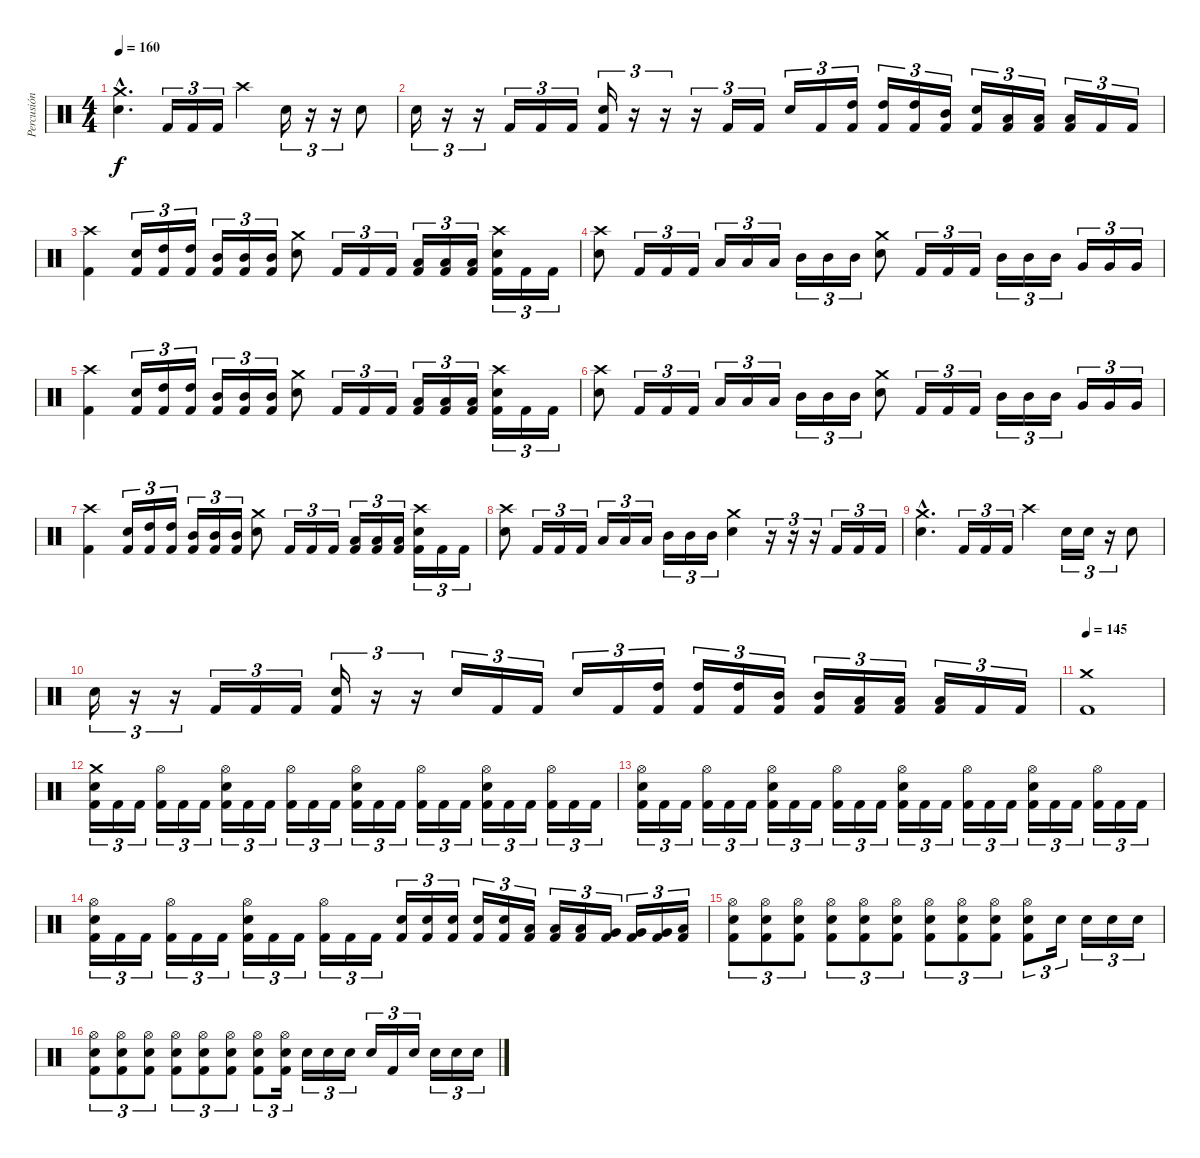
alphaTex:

\track ("Percusión" "Percusión") {instrument percussion}
\staff {score}
\articulation defaults
\ts (4 4)
\tempo 160
\clef neutral
\ks c
("Crash medium (hit)"{hac} "Electric Snare (hit)"{hac}).4{d dy f} "Kick (hit) 2".16{tu (3 2)} "Kick (hit) 2".16{tu (3 2)} "Kick (hit) 2".16{tu (3 2)} "Crash high (hit)".4 "Electric Snare (hit)".16{tu (3 2)} r.16{tu (3 2)} r.16{tu (3 2)} "Electric Snare (hit)".8 |
"Electric Snare (hit)".16{tu (3 2)} r.16{tu (3 2)} r.16{tu (3 2)} "Kick (hit) 2".16{tu (3 2)} "Kick (hit) 2".16{tu (3 2)} "Kick (hit) 2".16{tu (3 2)} ("Electric Snare (hit)" "Kick (hit) 2").16{tu (3 2)} r.16{tu (3 2)} r.16{tu (3 2)} r.16{tu (3 2)} "Kick (hit) 2".16{tu (3 2)} "Kick (hit) 2".16{tu (3 2)} "Electric Snare (hit)".16{tu (3 2)} "Kick (hit) 2".16{tu (3 2)} ("High Tom (hit)" "Kick (hit) 2").16{tu (3 2)} ("High Tom (hit)" "Kick (hit) 2").16{tu (3 2)} ("High Tom (hit)" "Kick (hit) 2").16{tu (3 2)} ("Mid Tom (hit)" "Kick (hit) 2").16{tu (3 2)} ("Electric Snare (hit)" "Kick (hit) 2").16{tu (3 2)} ("Low Tom (hit)" "Kick (hit) 2").16{tu (3 2)} ("Low Tom (hit)" "Kick (hit) 2").16{tu (3 2)} ("Low Tom (hit)" "Kick (hit) 2").16{tu (3 2)} "Kick (hit) 2".16{tu (3 2)} "Kick (hit) 2".16{tu (3 2)} |
("Crash high (hit)" "Kick (hit) 2").4 ("Electric Snare (hit)" "Kick (hit) 2").16{tu (3 2)} ("High Tom (hit)" "Kick (hit) 2").16{tu (3 2)} ("High Tom (hit)" "Kick (hit) 2").16{tu (3 2)} ("Mid Tom (hit)" "Kick (hit) 2").16{tu (3 2)} ("Mid Tom (hit)" "Kick (hit) 2").16{tu (3 2)} ("Mid Tom (hit)" "Kick (hit) 2").16{tu (3 2)} ("Crash medium (hit)" "Electric Snare (hit)").8 "Kick (hit) 2".16{tu (3 2)} "Kick (hit) 2".16{tu (3 2)} "Kick (hit) 2".16{tu (3 2)} ("Low Tom (hit)" "Kick (hit) 2").16{tu (3 2)} ("Low Tom (hit)" "Kick (hit) 2").16{tu (3 2)} ("Low Tom (hit)" "Kick (hit) 2").16{tu (3 2)} ("Crash high (hit)" "Electric Snare (hit)" "Kick (hit) 2").16{tu (3 2)} "Kick (hit) 2".16{tu (3 2)} "Kick (hit) 2".16{tu (3 2)} |
("Crash high (hit)" "Electric Snare (hit)").8 "Kick (hit) 2".16{tu (3 2)} "Kick (hit) 2".16{tu (3 2)} "Kick (hit) 2".16{tu (3 2)} "Low Tom (hit)".16{tu (3 2)} "Low Tom (hit)".16{tu (3 2)} "Low Tom (hit)".16{tu (3 2)} "Mid Tom (hit)".16{tu (3 2)} "Mid Tom (hit)".16{tu (3 2)} "Mid Tom (hit)".16{tu (3 2)} ("Crash medium (hit)" "Electric Snare (hit)").8 "Kick (hit) 2".16{tu (3 2)} "Kick (hit) 2".16{tu (3 2)} "Kick (hit) 2".16{tu (3 2)} "Mid Tom (hit)".16{tu (3 2)} "Mid Tom (hit)".16{tu (3 2)} "Mid Tom (hit)".16{tu (3 2)} "Very Low Tom (hit)".16{tu (3 2)} "Very Low Tom (hit)".16{tu (3 2)} "Very Low Tom (hit)".16{tu (3 2)} |
("Crash high (hit)" "Kick (hit) 2").4 ("Electric Snare (hit)" "Kick (hit) 2").16{tu (3 2)} ("High Tom (hit)" "Kick (hit) 2").16{tu (3 2)} ("High Tom (hit)" "Kick (hit) 2").16{tu (3 2)} ("Mid Tom (hit)" "Kick (hit) 2").16{tu (3 2)} ("Mid Tom (hit)" "Kick (hit) 2").16{tu (3 2)} ("Mid Tom (hit)" "Kick (hit) 2").16{tu (3 2)} ("Crash medium (hit)" "Electric Snare (hit)").8 "Kick (hit) 2".16{tu (3 2)} "Kick (hit) 2".16{tu (3 2)} "Kick (hit) 2".16{tu (3 2)} ("Low Tom (hit)" "Kick (hit) 2").16{tu (3 2)} ("Low Tom (hit)" "Kick (hit) 2").16{tu (3 2)} ("Low Tom (hit)" "Kick (hit) 2").16{tu (3 2)} ("Crash high (hit)" "Electric Snare (hit)" "Kick (hit) 2").16{tu (3 2)} "Kick (hit) 2".16{tu (3 2)} "Kick (hit) 2".16{tu (3 2)} |
("Crash high (hit)" "Electric Snare (hit)").8 "Kick (hit) 2".16{tu (3 2)} "Kick (hit) 2".16{tu (3 2)} "Kick (hit) 2".16{tu (3 2)} "Low Tom (hit)".16{tu (3 2)} "Low Tom (hit)".16{tu (3 2)} "Low Tom (hit)".16{tu (3 2)} "Mid Tom (hit)".16{tu (3 2)} "Mid Tom (hit)".16{tu (3 2)} "Mid Tom (hit)".16{tu (3 2)} ("Crash medium (hit)" "Electric Snare (hit)").8 "Kick (hit) 2".16{tu (3 2)} "Kick (hit) 2".16{tu (3 2)} "Kick (hit) 2".16{tu (3 2)} "Mid Tom (hit)".16{tu (3 2)} "Mid Tom (hit)".16{tu (3 2)} "Mid Tom (hit)".16{tu (3 2)} "Very Low Tom (hit)".16{tu (3 2)} "Very Low Tom (hit)".16{tu (3 2)} "Very Low Tom (hit)".16{tu (3 2)} |
("Crash high (hit)" "Kick (hit) 2").4 ("Electric Snare (hit)" "Kick (hit) 2").16{tu (3 2)} ("High Tom (hit)" "Kick (hit) 2").16{tu (3 2)} ("High Tom (hit)" "Kick (hit) 2").16{tu (3 2)} ("Mid Tom (hit)" "Kick (hit) 2").16{tu (3 2)} ("Mid Tom (hit)" "Kick (hit) 2").16{tu (3 2)} ("Mid Tom (hit)" "Kick (hit) 2").16{tu (3 2)} ("Crash medium (hit)" "Electric Snare (hit)").8 "Kick (hit) 2".16{tu (3 2)} "Kick (hit) 2".16{tu (3 2)} "Kick (hit) 2".16{tu (3 2)} ("Low Tom (hit)" "Kick (hit) 2").16{tu (3 2)} ("Low Tom (hit)" "Kick (hit) 2").16{tu (3 2)} ("Low Tom (hit)" "Kick (hit) 2").16{tu (3 2)} ("Crash high (hit)" "Electric Snare (hit)" "Kick (hit) 2").16{tu (3 2)} "Kick (hit) 2".16{tu (3 2)} "Kick (hit) 2".16{tu (3 2)} |
("Crash high (hit)" "Electric Snare (hit)").8 "Kick (hit) 2".16{tu (3 2)} "Kick (hit) 2".16{tu (3 2)} "Kick (hit) 2".16{tu (3 2)} "Low Tom (hit)".16{tu (3 2)} "Low Tom (hit)".16{tu (3 2)} "Low Tom (hit)".16{tu (3 2)} "Mid Tom (hit)".16{tu (3 2)} "Mid Tom (hit)".16{tu (3 2)} "Mid Tom (hit)".16{tu (3 2)} ("Crash medium (hit)" "Electric Snare (hit)").4 r.16{tu (3 2)} r.16{tu (3 2)} r.16{tu (3 2)} "Kick (hit) 2".16{tu (3 2)} "Kick (hit) 2".16{tu (3 2)} "Kick (hit) 2".16{tu (3 2)} |
("Crash medium (hit)"{hac} "Electric Snare (hit)"{hac}).4{d} "Kick (hit) 2".16{tu (3 2)} "Kick (hit) 2".16{tu (3 2)} "Kick (hit) 2".16{tu (3 2)} "Crash high (hit)".4 "Electric Snare (hit)".16{tu (3 2)} "Electric Snare (hit)".16{tu (3 2)} r.16{tu (3 2)} "Electric Snare (hit)".8 |
"Electric Snare (hit)".16{tu (3 2)} r.16{tu (3 2)} r.16{tu (3 2)} "Kick (hit) 2".16{tu (3 2)} "Kick (hit) 2".16{tu (3 2)} "Kick (hit) 2".16{tu (3 2)} ("Electric Snare (hit)" "Kick (hit) 2").16{tu (3 2)} r.16{tu (3 2)} r.16{tu (3 2)} "Electric Snare (hit)".16{tu (3 2)} "Kick (hit) 2".16{tu (3 2)} "Kick (hit) 2".16{tu (3 2)} "Electric Snare (hit)".16{tu (3 2)} "Kick (hit) 2".16{tu (3 2)} ("High Tom (hit)" "Kick (hit) 2").16{tu (3 2)} ("High Tom (hit)" "Kick (hit) 2").16{tu (3 2)} ("High Tom (hit)" "Kick (hit) 2").16{tu (3 2)} ("Mid Tom (hit)" "Kick (hit) 2").16{tu (3 2)} ("Mid Tom (hit)" "Kick (hit) 2").16{tu (3 2)} ("Low Tom (hit)" "Kick (hit) 2").16{tu (3 2)} ("Low Tom (hit)" "Kick (hit) 2").16{tu (3 2)} ("Low Tom (hit)" "Kick (hit) 2").16{tu (3 2)} "Kick (hit) 2".16{tu (3 2)} "Kick (hit) 2".16{tu (3 2)} |
\tempo 145
("Crash medium (hit)" "Kick (hit) 2").1 |
("Crash medium (hit)" "Electric Snare (hit)" "Kick (hit) 2").16{tu (3 2)} "Kick (hit) 2".16{tu (3 2)} "Kick (hit) 2".16{tu (3 2)} ("Hi-Hat (open)" "Kick (hit) 2").16{tu (3 2)} "Kick (hit) 2".16{tu (3 2)} "Kick (hit) 2".16{tu (3 2)} ("Hi-Hat (open)" "Electric Snare (hit)" "Kick (hit) 2").16{tu (3 2)} "Kick (hit) 2".16{tu (3 2)} "Kick (hit) 2".16{tu (3 2)} ("Hi-Hat (open)" "Kick (hit) 2").16{tu (3 2)} "Kick (hit) 2".16{tu (3 2)} "Kick (hit) 2".16{tu (3 2)} ("Hi-Hat (open)" "Electric Snare (hit)" "Kick (hit) 2").16{tu (3 2)} "Kick (hit) 2".16{tu (3 2)} "Kick (hit) 2".16{tu (3 2)} ("Hi-Hat (open)" "Kick (hit) 2").16{tu (3 2)} "Kick (hit) 2".16{tu (3 2)} "Kick (hit) 2".16{tu (3 2)} ("Hi-Hat (open)" "Electric Snare (hit)" "Kick (hit) 2").16{tu (3 2)} "Kick (hit) 2".16{tu (3 2)} "Kick (hit) 2".16{tu (3 2)} ("Hi-Hat (open)" "Kick (hit) 2").16{tu (3 2)} "Kick (hit) 2".16{tu (3 2)} "Kick (hit) 2".16{tu (3 2)} |
("Hi-Hat (open)" "Electric Snare (hit)" "Kick (hit) 2").16{tu (3 2)} "Kick (hit) 2".16{tu (3 2)} "Kick (hit) 2".16{tu (3 2)} ("Hi-Hat (open)" "Kick (hit) 2").16{tu (3 2)} "Kick (hit) 2".16{tu (3 2)} "Kick (hit) 2".16{tu (3 2)} ("Hi-Hat (open)" "Electric Snare (hit)" "Kick (hit) 2").16{tu (3 2)} "Kick (hit) 2".16{tu (3 2)} "Kick (hit) 2".16{tu (3 2)} ("Hi-Hat (open)" "Kick (hit) 2").16{tu (3 2)} "Kick (hit) 2".16{tu (3 2)} "Kick (hit) 2".16{tu (3 2)} ("Hi-Hat (open)" "Electric Snare (hit)" "Kick (hit) 2").16{tu (3 2)} "Kick (hit) 2".16{tu (3 2)} "Kick (hit) 2".16{tu (3 2)} ("Hi-Hat (open)" "Kick (hit) 2").16{tu (3 2)} "Kick (hit) 2".16{tu (3 2)} "Kick (hit) 2".16{tu (3 2)} ("Hi-Hat (open)" "Electric Snare (hit)" "Kick (hit) 2").16{tu (3 2)} "Kick (hit) 2".16{tu (3 2)} "Kick (hit) 2".16{tu (3 2)} ("Hi-Hat (open)" "Kick (hit) 2").16{tu (3 2)} "Kick (hit) 2".16{tu (3 2)} "Kick (hit) 2".16{tu (3 2)} |
("Hi-Hat (open)" "Electric Snare (hit)" "Kick (hit) 2").16{tu (3 2)} "Kick (hit) 2".16{tu (3 2)} "Kick (hit) 2".16{tu (3 2)} ("Hi-Hat (open)" "Kick (hit) 2").16{tu (3 2)} "Kick (hit) 2".16{tu (3 2)} "Kick (hit) 2".16{tu (3 2)} ("Hi-Hat (open)" "Electric Snare (hit)" "Kick (hit) 2").16{tu (3 2)} "Kick (hit) 2".16{tu (3 2)} "Kick (hit) 2".16{tu (3 2)} ("Hi-Hat (open)" "Kick (hit) 2").16{tu (3 2)} "Kick (hit) 2".16{tu (3 2)} "Kick (hit) 2".16{tu (3 2)} ("Electric Snare (hit)" "Kick (hit) 2").16{tu (3 2)} ("Electric Snare (hit)" "Kick (hit) 2").16{tu (3 2)} ("Electric Snare (hit)" "Kick (hit) 2").16{tu (3 2)} ("Electric Snare (hit)" "Kick (hit) 2").16{tu (3 2)} ("Electric Snare (hit)" "Kick (hit) 2").16{tu (3 2)} ("Low Tom (hit)" "Kick (hit) 2").16{tu (3 2)} ("Low Tom (hit)" "Kick (hit) 2").16{tu (3 2)} ("Low Tom (hit)" "Kick (hit) 2").16{tu (3 2)} ("Very Low Tom (hit)" "Kick (hit) 2").16{tu (3 2)} ("Very Low Tom (hit)" "Kick (hit) 2").16{tu (3 2)} ("Very Low Tom (hit)" "Kick (hit) 2").16{tu (3 2)} ("Low Floor Tom (hit)" "Kick (hit) 2").16{tu (3 2)} |
("Hi-Hat (open)" "Electric Snare (hit)" "Kick (hit) 2").8{tu (3 2)} ("Hi-Hat (open)" "Electric Snare (hit)" "Kick (hit) 2").8{tu (3 2)} ("Hi-Hat (open)" "Electric Snare (hit)" "Kick (hit) 2").8{tu (3 2)} ("Hi-Hat (open)" "Electric Snare (hit)" "Kick (hit) 2").8{tu (3 2)} ("Hi-Hat (open)" "Electric Snare (hit)" "Kick (hit) 2").8{tu (3 2)} ("Hi-Hat (open)" "Electric Snare (hit)" "Kick (hit) 2").8{tu (3 2)} ("Hi-Hat (open)" "Electric Snare (hit)" "Kick (hit) 2").8{tu (3 2)} ("Hi-Hat (open)" "Electric Snare (hit)" "Kick (hit) 2").8{tu (3 2)} ("Hi-Hat (open)" "Electric Snare (hit)" "Kick (hit) 2").8{tu (3 2)} ("Hi-Hat (open)" "Electric Snare (hit)" "Kick (hit) 2").8{tu (3 2)} "Electric Snare (hit)".16{tu (3 2)} "Electric Snare (hit)".16{tu (3 2)} "Electric Snare (hit)".16{tu (3 2)} "Electric Snare (hit)".16{tu (3 2)} |
("Hi-Hat (open)" "Electric Snare (hit)" "Kick (hit) 2").8{tu (3 2)} ("Hi-Hat (open)" "Electric Snare (hit)" "Kick (hit) 2").8{tu (3 2)} ("Hi-Hat (open)" "Electric Snare (hit)" "Kick (hit) 2").8{tu (3 2)} ("Hi-Hat (open)" "Electric Snare (hit)" "Kick (hit) 2").8{tu (3 2)} ("Hi-Hat (open)" "Electric Snare (hit)" "Kick (hit) 2").8{tu (3 2)} ("Hi-Hat (open)" "Electric Snare (hit)" "Kick (hit) 2").8{tu (3 2)} ("Hi-Hat (open)" "Electric Snare (hit)" "Kick (hit) 2").8{tu (3 2)} ("Hi-Hat (open)" "Electric Snare (hit)" "Kick (hit) 2").16{tu (3 2)} "Electric Snare (hit)".16{tu (3 2)} "Electric Snare (hit)".16{tu (3 2)} "Electric Snare (hit)".16{tu (3 2)} "Electric Snare (hit)".16{tu (3 2)} "Kick (hit) 2".16{tu (3 2)} "Electric Snare (hit)".16{tu (3 2)} "Electric Snare (hit)".16{tu (3 2)} "Electric Snare (hit)".16{tu (3 2)} "Electric Snare (hit)".16{tu (3 2)}
